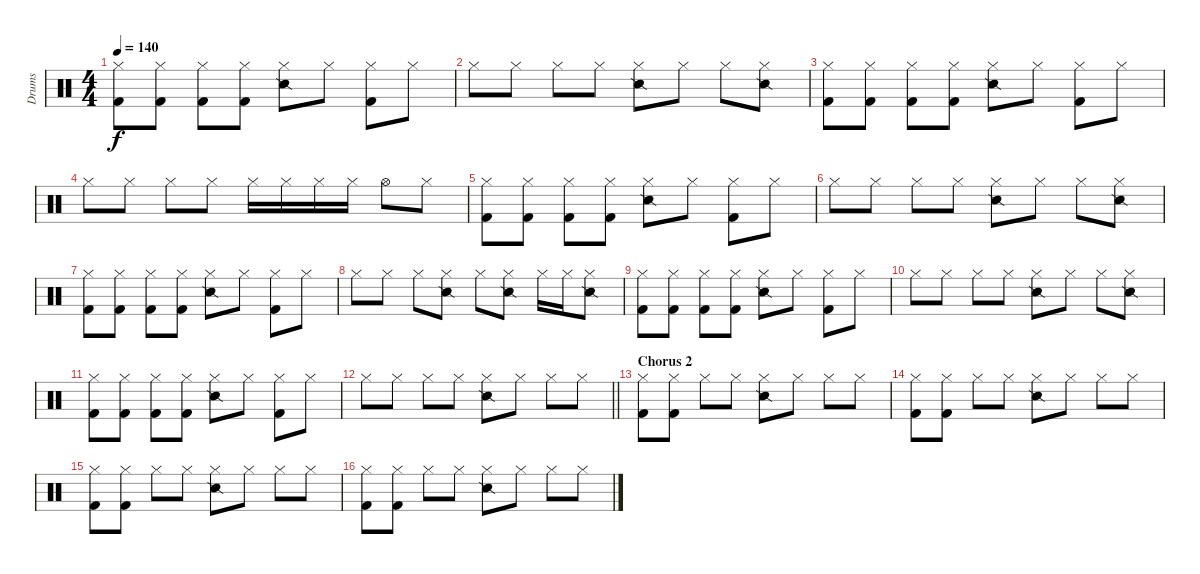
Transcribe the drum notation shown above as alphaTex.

\track ("Drums" "Drums") {instrument percussion}
\staff {score}
\articulation defaults
\ts (4 4)
\tempo 140
\clef neutral
\ks c
("Hi-Hat (closed)" "Kick (hit) 2").8{dy f} ("Hi-Hat (closed)" "Kick (hit) 2").8 ("Hi-Hat (closed)" "Kick (hit) 2").8 ("Hi-Hat (closed)" "Kick (hit) 2").8 ("Hi-Hat (closed)" "Snare (side stick) 2").8 "Hi-Hat (closed)".8 ("Hi-Hat (closed)" "Kick (hit) 2").8 "Hi-Hat (closed)".8 |
"Hi-Hat (closed)".8 "Hi-Hat (closed)".8 "Hi-Hat (closed)".8 "Hi-Hat (closed)".8 ("Hi-Hat (closed)" "Snare (side stick) 2").8 "Hi-Hat (closed)".8 "Hi-Hat (closed)".8 ("Hi-Hat (closed)" "Snare (side stick) 2").8 |
("Hi-Hat (closed)" "Kick (hit) 2").8 ("Hi-Hat (closed)" "Kick (hit) 2").8 ("Hi-Hat (closed)" "Kick (hit) 2").8 ("Hi-Hat (closed)" "Kick (hit) 2").8 ("Hi-Hat (closed)" "Snare (side stick) 2").8 "Hi-Hat (closed)".8 ("Hi-Hat (closed)" "Kick (hit) 2").8 "Hi-Hat (closed)".8 |
"Hi-Hat (closed)".8 "Hi-Hat (closed)".8 "Hi-Hat (closed)".8 "Hi-Hat (closed)".8 "Hi-Hat (closed)".16 "Hi-Hat (closed)".16 "Hi-Hat (closed)".16 "Hi-Hat (closed)".16 "Hi-Hat (open)".8 "Hi-Hat (closed)".8 |
("Hi-Hat (closed)" "Kick (hit) 2").8 ("Hi-Hat (closed)" "Kick (hit) 2").8 ("Hi-Hat (closed)" "Kick (hit) 2").8 ("Hi-Hat (closed)" "Kick (hit) 2").8 ("Hi-Hat (closed)" "Snare (side stick) 2").8 "Hi-Hat (closed)".8 ("Hi-Hat (closed)" "Kick (hit) 2").8 "Hi-Hat (closed)".8 |
"Hi-Hat (closed)".8 "Hi-Hat (closed)".8 "Hi-Hat (closed)".8 "Hi-Hat (closed)".8 ("Hi-Hat (closed)" "Snare (side stick) 2").8 "Hi-Hat (closed)".8 "Hi-Hat (closed)".8 ("Hi-Hat (closed)" "Snare (side stick) 2").8 |
("Hi-Hat (closed)" "Kick (hit) 2").8 ("Hi-Hat (closed)" "Kick (hit) 2").8 ("Hi-Hat (closed)" "Kick (hit) 2").8 ("Hi-Hat (closed)" "Kick (hit) 2").8 ("Hi-Hat (closed)" "Snare (side stick) 2").8 "Hi-Hat (closed)".8 ("Hi-Hat (closed)" "Kick (hit) 2").8 "Hi-Hat (closed)".8 |
"Hi-Hat (closed)".8 "Hi-Hat (closed)".8 "Hi-Hat (closed)".8 ("Hi-Hat (closed)" "Snare (side stick) 2").8 "Hi-Hat (closed)".8 ("Hi-Hat (closed)" "Snare (side stick) 2").8 "Hi-Hat (closed)".16 "Hi-Hat (closed)".16 ("Hi-Hat (closed)" "Snare (side stick) 2").8 |
("Hi-Hat (closed)" "Kick (hit) 2").8 ("Hi-Hat (closed)" "Kick (hit) 2").8 ("Hi-Hat (closed)" "Kick (hit) 2").8 ("Hi-Hat (closed)" "Kick (hit) 2").8 ("Hi-Hat (closed)" "Snare (side stick) 2").8 "Hi-Hat (closed)".8 ("Hi-Hat (closed)" "Kick (hit) 2").8 "Hi-Hat (closed)".8 |
"Hi-Hat (closed)".8 "Hi-Hat (closed)".8 "Hi-Hat (closed)".8 "Hi-Hat (closed)".8 ("Hi-Hat (closed)" "Snare (side stick) 2").8 "Hi-Hat (closed)".8 "Hi-Hat (closed)".8 ("Hi-Hat (closed)" "Snare (side stick) 2").8 |
("Hi-Hat (closed)" "Kick (hit) 2").8 ("Hi-Hat (closed)" "Kick (hit) 2").8 ("Hi-Hat (closed)" "Kick (hit) 2").8 ("Hi-Hat (closed)" "Kick (hit) 2").8 ("Hi-Hat (closed)" "Snare (side stick) 2").8 "Hi-Hat (closed)".8 ("Hi-Hat (closed)" "Kick (hit) 2").8 "Hi-Hat (closed)".8 |
\barLineRight lightlight "Hi-Hat (closed)".8 "Hi-Hat (closed)".8 "Hi-Hat (closed)".8 "Hi-Hat (closed)".8
("Hi-Hat (closed)" "Snare (side stick) 2").8 "Hi-Hat (closed)".8 "Hi-Hat (closed)".8 "Hi-Hat (closed)".8 |
\section ("" "Chorus 2")
("Hi-Hat (closed)" "Kick (hit) 2").8 ("Hi-Hat (closed)" "Kick (hit) 2").8 "Hi-Hat (closed)".8 "Hi-Hat (closed)".8 ("Hi-Hat (closed)" "Snare (side stick) 2").8 "Hi-Hat (closed)".8 "Hi-Hat (closed)".8 "Hi-Hat (closed)".8 |
("Hi-Hat (closed)" "Kick (hit) 2").8 ("Hi-Hat (closed)" "Kick (hit) 2").8 "Hi-Hat (closed)".8 "Hi-Hat (closed)".8 ("Hi-Hat (closed)" "Snare (side stick) 2").8 "Hi-Hat (closed)".8 "Hi-Hat (closed)".8 "Hi-Hat (closed)".8 |
("Hi-Hat (closed)" "Kick (hit) 2").8 ("Hi-Hat (closed)" "Kick (hit) 2").8 "Hi-Hat (closed)".8 "Hi-Hat (closed)".8 ("Hi-Hat (closed)" "Snare (side stick) 2").8 "Hi-Hat (closed)".8 "Hi-Hat (closed)".8 "Hi-Hat (closed)".8 |
("Hi-Hat (closed)" "Kick (hit) 2").8 ("Hi-Hat (closed)" "Kick (hit) 2").8 "Hi-Hat (closed)".8 "Hi-Hat (closed)".8 ("Hi-Hat (closed)" "Snare (side stick) 2").8 "Hi-Hat (closed)".8 "Hi-Hat (closed)".8 "Hi-Hat (closed)".8
